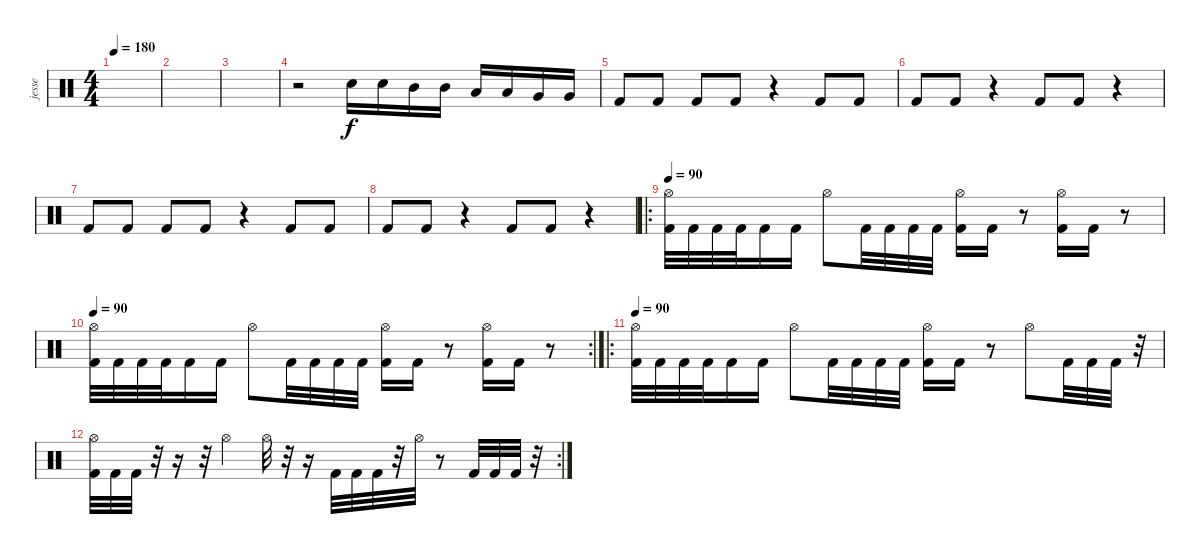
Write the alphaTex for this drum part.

\track ("jesse" "jesse") {instrument percussion}
\staff {score}
\articulation defaults
\ts (4 4)
\tempo 180
\clef neutral
\ks c
|
|
|
r.2 "Snare (hit) 2".16 "Snare (hit) 2".16 "Mid Tom (hit)".16 "Mid Tom (hit)".16 "Low Tom (hit)".16 "Low Tom (hit)".16 "Very Low Tom (hit)".16 "Very Low Tom (hit)".16 |
"Kick (hit) 2".8 "Kick (hit) 2".8 "Kick (hit) 2".8 "Kick (hit) 2".8 r.4 "Kick (hit) 2".8 "Kick (hit) 2".8 |
"Kick (hit) 2".8 "Kick (hit) 2".8 r.4 "Kick (hit) 2".8 "Kick (hit) 2".8 r.4 |
"Kick (hit) 2".8 "Kick (hit) 2".8 "Kick (hit) 2".8 "Kick (hit) 2".8 r.4 "Kick (hit) 2".8 "Kick (hit) 2".8 |
"Kick (hit) 2".8 "Kick (hit) 2".8 r.4 "Kick (hit) 2".8 "Kick (hit) 2".8 r.4 |
\ro
\tempo 90
("Hi-Hat (open)" "Kick (hit) 2").32 "Kick (hit) 2".32 "Kick (hit) 2".32 "Kick (hit) 2".32 "Kick (hit) 2".16 "Kick (hit) 2".16 "Hi-Hat (open)".8 "Kick (hit) 2".32 "Kick (hit) 2".32 "Kick (hit) 2".32 "Kick (hit) 2".32 ("Hi-Hat (open)" "Kick (hit) 2").16 "Kick (hit) 2".16 r.8 ("Hi-Hat (open)" "Kick (hit) 2").16 "Kick (hit) 2".16 r.8 |
\rc 2
\tempo 90
("Hi-Hat (open)" "Kick (hit) 2").32 "Kick (hit) 2".32 "Kick (hit) 2".32 "Kick (hit) 2".32 "Kick (hit) 2".16 "Kick (hit) 2".16 "Hi-Hat (open)".8 "Kick (hit) 2".32 "Kick (hit) 2".32 "Kick (hit) 2".32 "Kick (hit) 2".32 ("Hi-Hat (open)" "Kick (hit) 2").16 "Kick (hit) 2".16 r.8 ("Hi-Hat (open)" "Kick (hit) 2").16 "Kick (hit) 2".16 r.8 |
\ro
\tempo 90
("Hi-Hat (open)" "Kick (hit) 2").32 "Kick (hit) 2".32 "Kick (hit) 2".32 "Kick (hit) 2".32 "Kick (hit) 2".16 "Kick (hit) 2".16 "Hi-Hat (open)".8 "Kick (hit) 2".32 "Kick (hit) 2".32 "Kick (hit) 2".32 "Kick (hit) 2".32 ("Hi-Hat (open)" "Kick (hit) 2").16 "Kick (hit) 2".16 r.8 "Hi-Hat (open)".8 "Kick (hit) 2".32 "Kick (hit) 2".32 "Kick (hit) 2".32 r.32 |
\rc 2
("Hi-Hat (open)" "Kick (hit) 2").32 "Kick (hit) 2".32 "Kick (hit) 2".32 r.32 r.16 r.32 "Hi-Hat (open)".4 "Hi-Hat (open)".32 r.32 r.16 "Kick (hit) 2".32 "Kick (hit) 2".32 "Kick (hit) 2".32 r.32 "Hi-Hat (open)".32 r.8 "Kick (hit) 2".32 "Kick (hit) 2".32 "Kick (hit) 2".32 r.32
